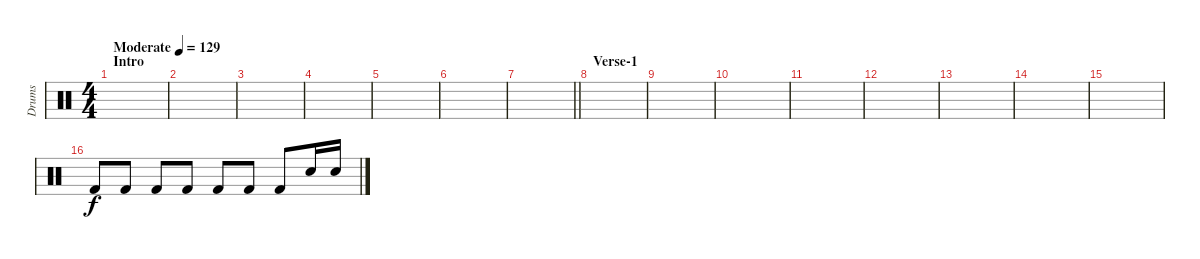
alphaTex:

\track ("Drums" "Drums") {instrument percussion}
\staff {score}
\articulation defaults
\ts (4 4)
\section ("" "Intro")
\tempo (129 "Moderate")
\clef neutral
\ks c
|
|
|
|
|
|
\barLineRight lightlight
|
\section ("" "Verse-1")
|
|
|
|
|
|
|
|
"Kick (hit) 2".8 "Kick (hit) 2".8 "Kick (hit) 2".8 "Kick (hit) 2".8 "Kick (hit) 2".8 "Kick (hit) 2".8 "Kick (hit) 2".8 "Snare (hit) 2".16 "Snare (hit) 2".16
